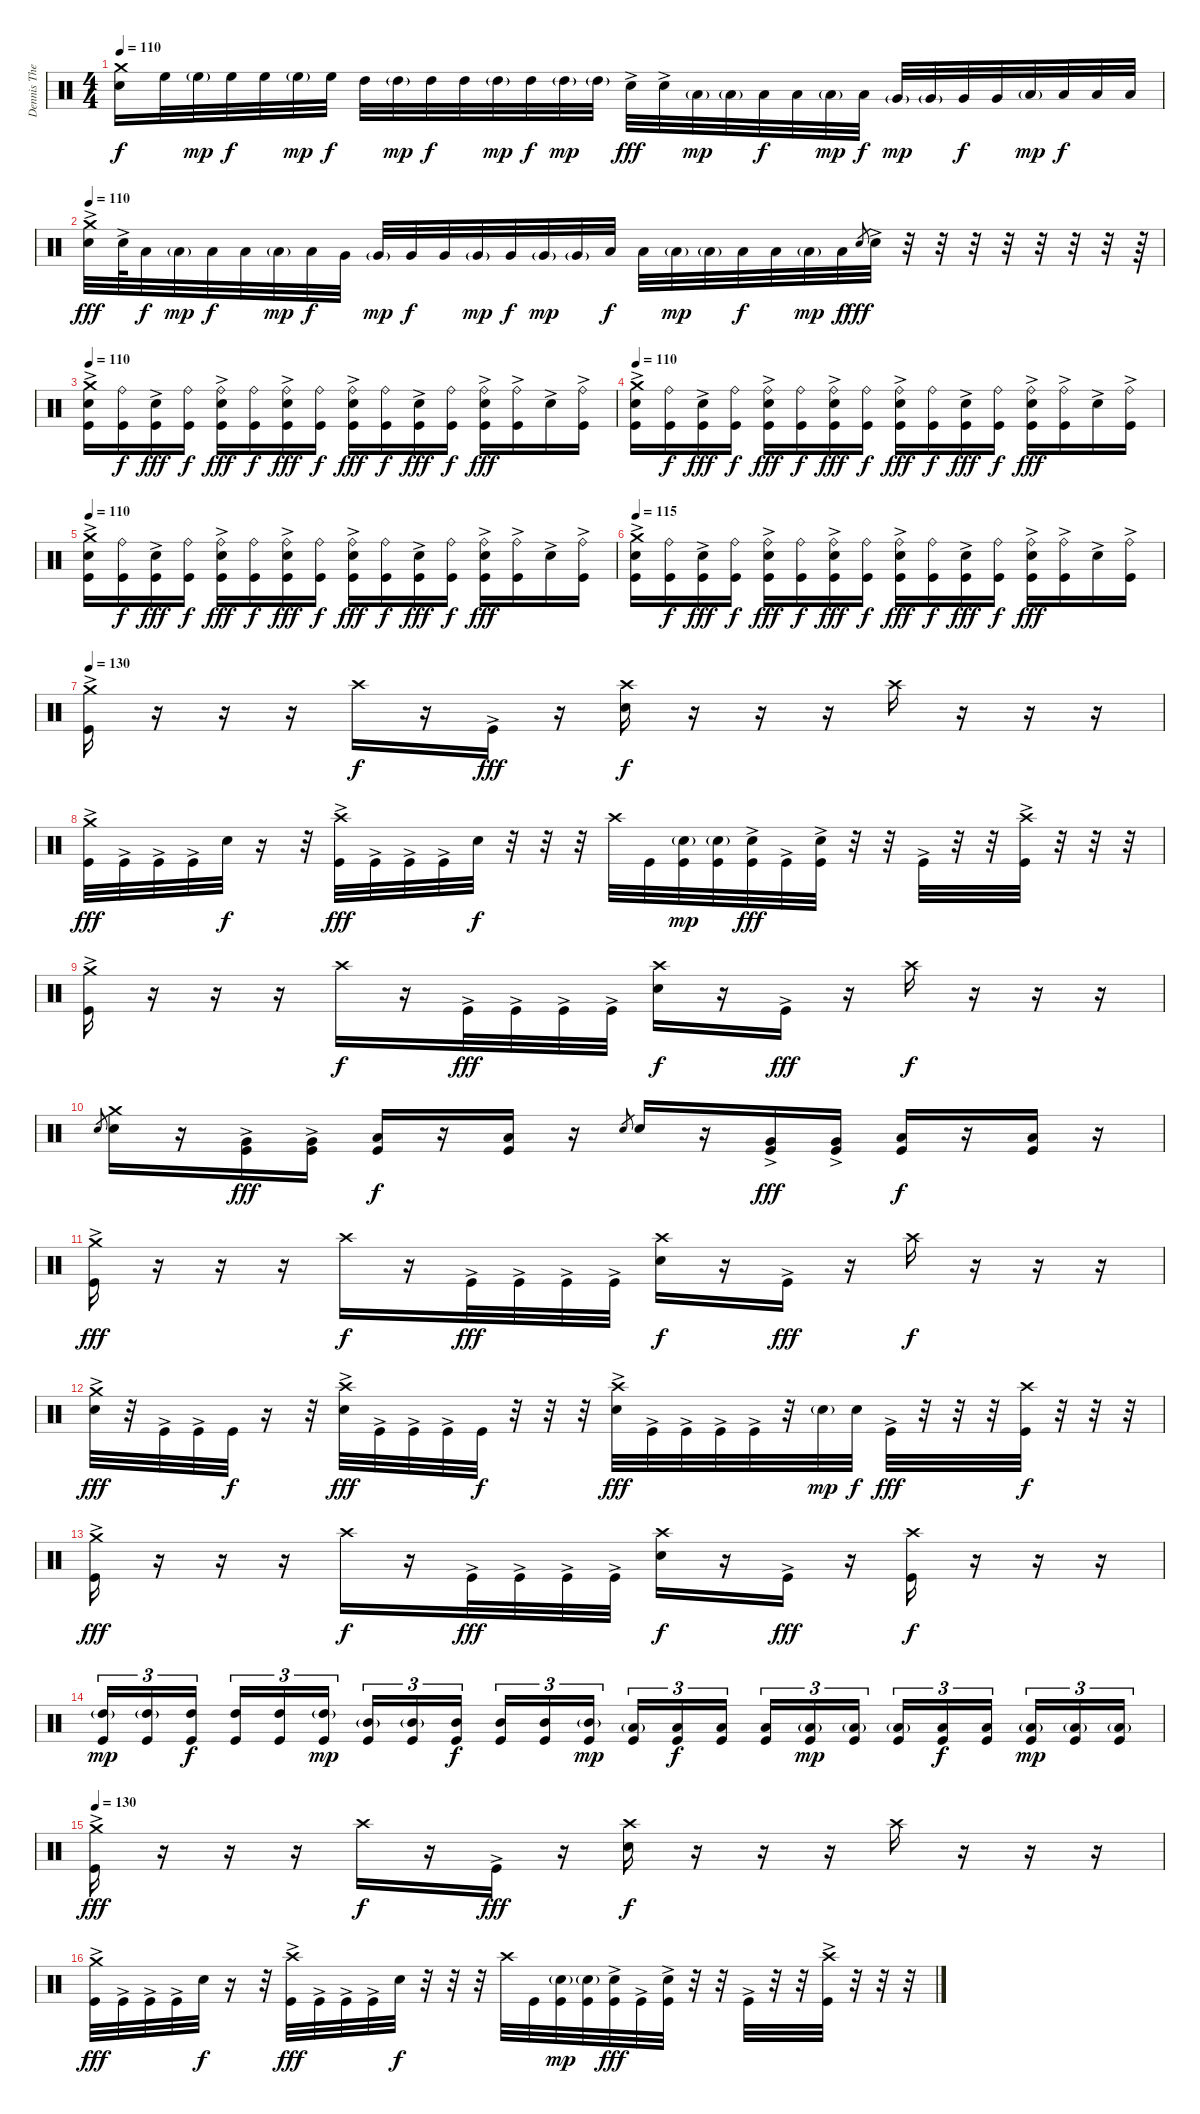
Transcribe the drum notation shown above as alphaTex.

\track ("Dennis The Menace" "Dennis The") {instrument percussion}
\staff {score}
\articulation defaults
\ts (4 4)
\tempo 110
\clef neutral
\ks c
("Crash medium (hit)" "Electric Snare (hit)").16{dy f} "High Floor Tom (hit)".32 "High Floor Tom (hit)"{g}.32{dy mp} "High Floor Tom (hit)".32{dy f} "High Floor Tom (hit)".32 "High Floor Tom (hit)"{g}.32{dy mp} "High Floor Tom (hit)".32{dy f} "High Tom (hit)".32 "High Tom (hit)"{g}.32{dy mp} "High Tom (hit)".32{dy f} "High Tom (hit)".32 "High Tom (hit)"{g}.32{dy mp} "High Tom (hit)".32{dy f} "High Tom (hit)"{g}.32{dy mp} "High Tom (hit)"{g}.32 "Electric Snare (hit)"{ac}.32{dy fff} "Electric Snare (hit)"{ac}.32 "Low Tom (hit)"{g}.32{dy mp} "Low Tom (hit)"{g}.32 "Low Tom (hit)".32{dy f} "Low Tom (hit)".32 "Low Tom (hit)"{g}.32{dy mp} "Low Tom (hit)".32{dy f} "Very Low Tom (hit)"{g}.32{dy mp} "Very Low Tom (hit)"{g}.32 "Very Low Tom (hit)".32{dy f} "Very Low Tom (hit)".32 "Low Floor Tom (hit)"{g}.32{dy mp} "Low Floor Tom (hit)".32{dy f} "Low Floor Tom (hit)".32 "Low Floor Tom (hit)".32 |
\tempo 110
("Crash medium (hit)" "Electric Snare (hit)"{ac}).32{dy fff} "Electric Snare (hit)"{ac}.64 "Low Tom (hit)".32{dy f} "Low Tom (hit)"{g}.32{dy mp} "Low Tom (hit)".32{dy f} "Low Tom (hit)".32 "Low Tom (hit)"{g}.32{dy mp} "Low Tom (hit)".32{dy f} "Very Low Tom (hit)".32 "Very Low Tom (hit)"{g}.32{dy mp} "Very Low Tom (hit)".32{dy f} "Very Low Tom (hit)".32 "Very Low Tom (hit)"{g}.32{dy mp} "Very Low Tom (hit)".32{dy f} "Very Low Tom (hit)"{g}.32{dy mp} "Very Low Tom (hit)"{g}.32 "Low Floor Tom (hit)".32{dy f} "Low Floor Tom (hit)".32 "Low Floor Tom (hit)"{g}.32{dy mp} "Low Floor Tom (hit)"{g}.32 "Low Tom (hit)".32{dy f} "Low Tom (hit)".32 "Low Tom (hit)"{g}.32{dy mp} "Low Tom (hit)".32{dy f} "Electric Snare (hit)".8{gr dy fff} "Electric Snare (hit)"{ac}.32 r.32 r.32 r.32 r.32 r.32 r.32 r.32 r.64 |
\tempo 110
("Crash medium (hit)" "Electric Snare (hit)"{ac} "Kick (hit)").16 ("Ride (bell)" "Kick (hit)").16{dy f} ("Electric Snare (hit)"{ac} "Kick (hit)").16{dy fff} ("Ride (bell)" "Kick (hit)").16{dy f} ("Ride (bell)" "Electric Snare (hit)"{ac} "Kick (hit)").16{dy fff} ("Ride (bell)" "Kick (hit)").16{dy f} ("Ride (bell)" "Electric Snare (hit)"{ac} "Kick (hit)").16{dy fff} ("Ride (bell)" "Kick (hit)").16{dy f} ("Ride (bell)" "Electric Snare (hit)"{ac} "Kick (hit)").16{dy fff} ("Ride (bell)" "Kick (hit)").16{dy f} ("Electric Snare (hit)"{ac} "Kick (hit)").16{dy fff} ("Ride (bell)" "Kick (hit)").16{dy f} ("Ride (bell)" "Electric Snare (hit)"{ac} "Kick (hit)").16{dy fff} ("Ride (bell)" "Kick (hit)"{ac}).16 "Electric Snare (hit)"{ac}.16 ("Ride (bell)" "Kick (hit)"{ac}).16 |
\tempo 110
("Crash medium (hit)" "Electric Snare (hit)"{ac} "Kick (hit)").16 ("Ride (bell)" "Kick (hit)").16{dy f} ("Electric Snare (hit)"{ac} "Kick (hit)").16{dy fff} ("Ride (bell)" "Kick (hit)").16{dy f} ("Ride (bell)" "Electric Snare (hit)"{ac} "Kick (hit)").16{dy fff} ("Ride (bell)" "Kick (hit)").16{dy f} ("Ride (bell)" "Electric Snare (hit)"{ac} "Kick (hit)").16{dy fff} ("Ride (bell)" "Kick (hit)").16{dy f} ("Ride (bell)" "Electric Snare (hit)"{ac} "Kick (hit)").16{dy fff} ("Ride (bell)" "Kick (hit)").16{dy f} ("Electric Snare (hit)"{ac} "Kick (hit)").16{dy fff} ("Ride (bell)" "Kick (hit)").16{dy f} ("Ride (bell)" "Electric Snare (hit)"{ac} "Kick (hit)").16{dy fff} ("Ride (bell)" "Kick (hit)"{ac}).16 "Electric Snare (hit)"{ac}.16 ("Ride (bell)" "Kick (hit)"{ac}).16 |
\tempo 110
("Crash medium (hit)" "Electric Snare (hit)"{ac} "Kick (hit)").16 ("Ride (bell)" "Kick (hit)").16{dy f} ("Electric Snare (hit)"{ac} "Kick (hit)").16{dy fff} ("Ride (bell)" "Kick (hit)").16{dy f} ("Ride (bell)" "Electric Snare (hit)"{ac} "Kick (hit)").16{dy fff} ("Ride (bell)" "Kick (hit)").16{dy f} ("Ride (bell)" "Electric Snare (hit)"{ac} "Kick (hit)").16{dy fff} ("Ride (bell)" "Kick (hit)").16{dy f} ("Ride (bell)" "Electric Snare (hit)"{ac} "Kick (hit)").16{dy fff} ("Ride (bell)" "Kick (hit)").16{dy f} ("Electric Snare (hit)"{ac} "Kick (hit)").16{dy fff} ("Ride (bell)" "Kick (hit)").16{dy f} ("Ride (bell)" "Electric Snare (hit)"{ac} "Kick (hit)").16{dy fff} ("Ride (bell)" "Kick (hit)"{ac}).16 "Electric Snare (hit)"{ac}.16 ("Ride (bell)" "Kick (hit)"{ac}).16 |
\tempo 115
("Crash medium (hit)" "Electric Snare (hit)"{ac} "Kick (hit)").16 ("Ride (bell)" "Kick (hit)").16{dy f} ("Electric Snare (hit)"{ac} "Kick (hit)").16{dy fff} ("Ride (bell)" "Kick (hit)").16{dy f} ("Ride (bell)" "Electric Snare (hit)"{ac} "Kick (hit)").16{dy fff} ("Ride (bell)" "Kick (hit)").16{dy f} ("Ride (bell)" "Electric Snare (hit)"{ac} "Kick (hit)").16{dy fff} ("Ride (bell)" "Kick (hit)").16{dy f} ("Ride (bell)" "Electric Snare (hit)"{ac} "Kick (hit)").16{dy fff} ("Ride (bell)" "Kick (hit)").16{dy f} ("Electric Snare (hit)"{ac} "Kick (hit)").16{dy fff} ("Ride (bell)" "Kick (hit)").16{dy f} ("Ride (bell)" "Electric Snare (hit)"{ac} "Kick (hit)").16{dy fff} ("Ride (bell)" "Kick (hit)"{ac}).16 "Electric Snare (hit)"{ac}.16 ("Ride (bell)" "Kick (hit)"{ac}).16 |
\tempo 130
("Crash medium (hit)" "Kick (hit)"{ac}).16 r.16 r.16 r.16 "Crash high (hit)".16{dy f} r.16 "Kick (hit)"{ac}.16{dy fff} r.16 ("Crash high (hit)" "Electric Snare (hit)").16{dy f} r.16 r.16 r.16 "Crash high (hit)".16 r.16 r.16 r.16 |
("Crash medium (hit)" "Kick (hit)"{ac}).32{dy fff} "Kick (hit)"{ac}.32 "Kick (hit)"{ac}.32 "Kick (hit)"{ac}.32 "Electric Snare (hit)".32{dy f} r.16 r.32 ("Crash high (hit)" "Kick (hit)"{ac}).32{dy fff} "Kick (hit)"{ac}.32 "Kick (hit)"{ac}.32 "Kick (hit)"{ac}.32 "Electric Snare (hit)".32{dy f} r.32 r.32 r.32 "Crash high (hit)".32 "Kick (hit)".32 ("Electric Snare (hit)"{g} "Kick (hit)").32{dy mp} ("Electric Snare (hit)"{g} "Kick (hit)").32 ("Electric Snare (hit)" "Kick (hit)"{ac}).32{dy fff} "Kick (hit)"{ac}.32 ("Electric Snare (hit)" "Kick (hit)"{ac}).32 r.32 r.32 "Kick (hit)"{ac}.32 r.32 r.32 ("Crash high (hit)" "Kick (hit)"{ac}).32 r.32 r.32 r.32 |
("Crash medium (hit)" "Kick (hit)"{ac}).16 r.16 r.16 r.16 "Crash high (hit)".16{dy f} r.16 "Kick (hit)"{ac}.32{dy fff} "Kick (hit)"{ac}.32 "Kick (hit)"{ac}.32 "Kick (hit)"{ac}.32 ("Crash high (hit)" "Electric Snare (hit)").16{dy f} r.16 "Kick (hit)"{ac}.16{dy fff} r.16 "Crash high (hit)".16{dy f} r.16 r.16 r.16 |
"Electric Snare (hit)".8{gr} ("Crash medium (hit)" "Electric Snare (hit)").16 r.16 ("Very Low Tom (hit)" "Kick (hit)"{ac}).16{dy fff} ("Very Low Tom (hit)" "Kick (hit)"{ac}).16 ("Low Floor Tom (hit)" "Kick (hit)").16{dy f} r.16 ("Low Floor Tom (hit)" "Kick (hit)").16 r.16 "Electric Snare (hit)".8{gr} "Electric Snare (hit)".16 r.16 ("Very Low Tom (hit)" "Kick (hit)"{ac}).16{dy fff} ("Very Low Tom (hit)" "Kick (hit)"{ac}).16 ("Low Floor Tom (hit)" "Kick (hit)").16{dy f} r.16 ("Low Floor Tom (hit)" "Kick (hit)").16 r.16 |
("Crash medium (hit)" "Kick (hit)"{ac}).16{dy fff} r.16 r.16 r.16 "Crash high (hit)".16{dy f} r.16 "Kick (hit)"{ac}.32{dy fff} "Kick (hit)"{ac}.32 "Kick (hit)"{ac}.32 "Kick (hit)"{ac}.32 ("Crash high (hit)" "Electric Snare (hit)").16{dy f} r.16 "Kick (hit)"{ac}.16{dy fff} r.16 "Crash high (hit)".16{dy f} r.16 r.16 r.16 |
("Crash medium (hit)" "Electric Snare (hit)"{ac}).32{dy fff} r.32 "Kick (hit)"{ac}.32 "Kick (hit)"{ac}.32 "Kick (hit)".32{dy f} r.16 r.32 ("Crash high (hit)" "Electric Snare (hit)"{ac}).32{dy fff} "Kick (hit)"{ac}.32 "Kick (hit)"{ac}.32 "Kick (hit)"{ac}.32 "Kick (hit)".32{dy f} r.32 r.32 r.32 ("Crash high (hit)" "Electric Snare (hit)"{ac}).32{dy fff} "Kick (hit)"{ac}.32 "Kick (hit)"{ac}.32 "Kick (hit)"{ac}.32 "Kick (hit)"{ac}.32 r.32 "Electric Snare (hit)"{g}.32{dy mp} "Electric Snare (hit)".32{dy f} "Kick (hit)"{ac}.32{dy fff} r.32 r.32 r.32 ("Crash high (hit)" "Kick (hit)").32{dy f} r.32 r.32 r.32 |
("Crash medium (hit)" "Kick (hit)"{ac}).16{dy fff} r.16 r.16 r.16 "Crash high (hit)".16{dy f} r.16 "Kick (hit)"{ac}.32{dy fff} "Kick (hit)"{ac}.32 "Kick (hit)"{ac}.32 "Kick (hit)"{ac}.32 ("Crash high (hit)" "Electric Snare (hit)").16{dy f} r.16 "Kick (hit)"{ac}.16{dy fff} r.16 ("Crash high (hit)" "Kick (hit)").16{dy f} r.16 r.16 r.16 |
("High Tom (hit)"{g} "Kick (hit)").16{tu (3 2) dy mp} ("High Tom (hit)"{g} "Kick (hit)").16{tu (3 2)} ("High Tom (hit)" "Kick (hit)").16{tu (3 2) dy f} ("High Tom (hit)" "Kick (hit)").16{tu (3 2)} ("High Tom (hit)" "Kick (hit)").16{tu (3 2)} ("High Tom (hit)"{g} "Kick (hit)").16{tu (3 2) dy mp} ("Mid Tom (hit)"{g} "Kick (hit)").16{tu (3 2)} ("Mid Tom (hit)"{g} "Kick (hit)").16{tu (3 2)} ("Mid Tom (hit)" "Kick (hit)").16{tu (3 2) dy f} ("Mid Tom (hit)" "Kick (hit)").16{tu (3 2)} ("Mid Tom (hit)" "Kick (hit)").16{tu (3 2)} ("Mid Tom (hit)"{g} "Kick (hit)").16{tu (3 2) dy mp} ("Low Tom (hit)"{g} "Kick (hit)").16{tu (3 2)} ("Low Tom (hit)" "Kick (hit)").16{tu (3 2) dy f} ("Low Tom (hit)" "Kick (hit)").16{tu (3 2)} ("Low Tom (hit)" "Kick (hit)").16{tu (3 2)} ("Low Tom (hit)"{g} "Kick (hit)").16{tu (3 2) dy mp} ("Low Tom (hit)"{g} "Kick (hit)").16{tu (3 2)} ("Low Floor Tom (hit)"{g} "Kick (hit)").16{tu (3 2)} ("Low Floor Tom (hit)" "Kick (hit)").16{tu (3 2) dy f} ("Low Floor Tom (hit)" "Kick (hit)").16{tu (3 2)} ("Low Floor Tom (hit)"{g} "Kick (hit)").16{tu (3 2) dy mp} ("Low Floor Tom (hit)"{g} "Kick (hit)").16{tu (3 2)} ("Low Floor Tom (hit)"{g} "Kick (hit)").16{tu (3 2)} |
\tempo 130
("Crash medium (hit)" "Kick (hit)"{ac}).16{dy fff} r.16 r.16 r.16 "Crash high (hit)".16{dy f} r.16 "Kick (hit)"{ac}.16{dy fff} r.16 ("Crash high (hit)" "Electric Snare (hit)").16{dy f} r.16 r.16 r.16 "Crash high (hit)".16 r.16 r.16 r.16 |
("Crash medium (hit)" "Kick (hit)"{ac}).32{dy fff} "Kick (hit)"{ac}.32 "Kick (hit)"{ac}.32 "Kick (hit)"{ac}.32 "Electric Snare (hit)".32{dy f} r.16 r.32 ("Crash high (hit)" "Kick (hit)"{ac}).32{dy fff} "Kick (hit)"{ac}.32 "Kick (hit)"{ac}.32 "Kick (hit)"{ac}.32 "Electric Snare (hit)".32{dy f} r.32 r.32 r.32 "Crash high (hit)".32 "Kick (hit)".32 ("Electric Snare (hit)"{g} "Kick (hit)").32{dy mp} ("Electric Snare (hit)"{g} "Kick (hit)").32 ("Electric Snare (hit)" "Kick (hit)"{ac}).32{dy fff} "Kick (hit)"{ac}.32 ("Electric Snare (hit)" "Kick (hit)"{ac}).32 r.32 r.32 "Kick (hit)"{ac}.32 r.32 r.32 ("Crash high (hit)" "Kick (hit)"{ac}).32 r.32 r.32 r.32
